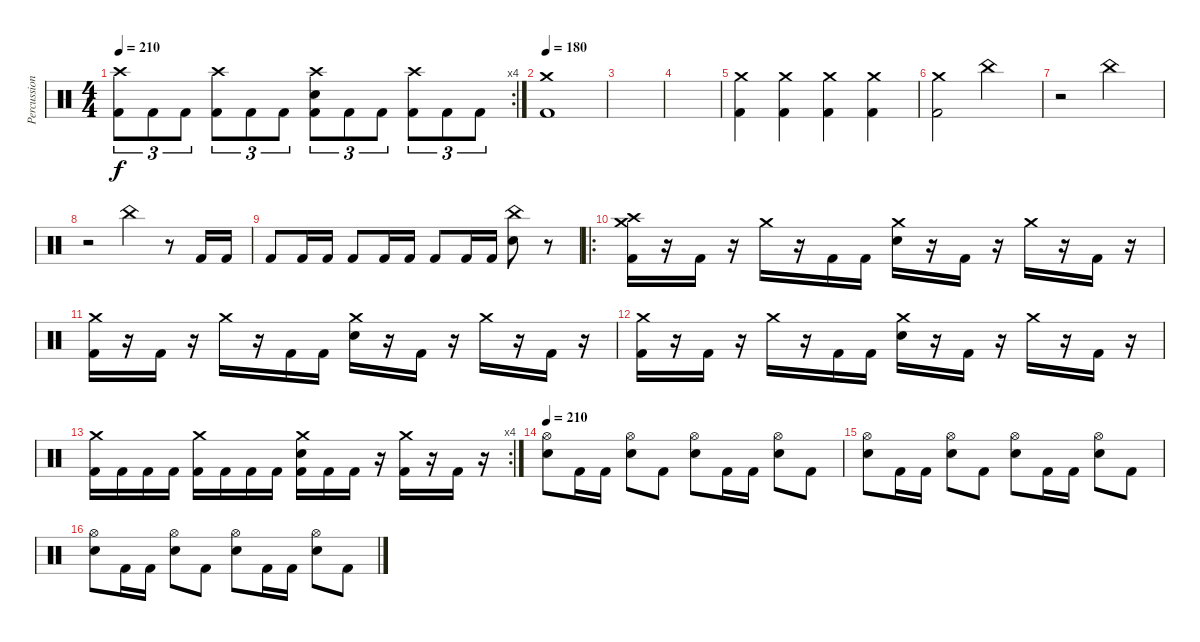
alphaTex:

\track ("Percussion" "Percussion") {instrument percussion}
\staff {score}
\articulation defaults
\rc 4
\ts (4 4)
\tempo 210
\clef neutral
\ks c
("Crash high (hit)" "Kick (hit) 2").8{tu (3 2) dy f} "Kick (hit) 2".8{tu (3 2)} "Kick (hit) 2".8{tu (3 2)} ("Crash high (hit)" "Kick (hit) 2").8{tu (3 2)} "Kick (hit) 2".8{tu (3 2)} "Kick (hit) 2".8{tu (3 2)} ("Crash high (hit)" "Electric Snare (hit)" "Kick (hit) 2").8{tu (3 2)} "Kick (hit) 2".8{tu (3 2)} "Kick (hit) 2".8{tu (3 2)} ("Crash high (hit)" "Kick (hit) 2").8{tu (3 2)} "Kick (hit) 2".8{tu (3 2)} "Kick (hit) 2".8{tu (3 2)} |
\tempo 180
("Crash medium (hit)" "Kick (hit) 2").1 |
|
|
("Crash medium (hit)" "Kick (hit) 2").4 ("Crash medium (hit)" "Kick (hit) 2").4 ("Crash medium (hit)" "Kick (hit) 2").4 ("Crash medium (hit)" "Kick (hit) 2").4 |
("Crash medium (hit)" "Kick (hit) 2").2 "China (hit)".2 |
r.2 "China (hit)".2 |
r.2 "China (hit)".4 r.8 "Kick (hit) 2".16 "Kick (hit) 2".16 |
"Kick (hit) 2".8 "Kick (hit) 2".16 "Kick (hit) 2".16 "Kick (hit) 2".8 "Kick (hit) 2".16 "Kick (hit) 2".16 "Kick (hit) 2".8 "Kick (hit) 2".16 "Kick (hit) 2".16 ("China (hit)" "Electric Snare (hit)").8 r.8 |
\ro
("Crash high (hit)" "Crash medium (hit)" "Kick (hit) 2").16 r.16 "Kick (hit) 2".16 r.16 "Crash medium (hit)".16 r.16 "Kick (hit) 2".16 "Kick (hit) 2".16 ("Crash medium (hit)" "Electric Snare (hit)").16 r.16 "Kick (hit) 2".16 r.16 "Crash medium (hit)".16 r.16 "Kick (hit) 2".16 r.16 |
("Crash medium (hit)" "Kick (hit) 2").16 r.16 "Kick (hit) 2".16 r.16 "Crash medium (hit)".16 r.16 "Kick (hit) 2".16 "Kick (hit) 2".16 ("Crash medium (hit)" "Electric Snare (hit)").16 r.16 "Kick (hit) 2".16 r.16 "Crash medium (hit)".16 r.16 "Kick (hit) 2".16 r.16 |
("Crash medium (hit)" "Kick (hit) 2").16 r.16 "Kick (hit) 2".16 r.16 "Crash medium (hit)".16 r.16 "Kick (hit) 2".16 "Kick (hit) 2".16 ("Crash medium (hit)" "Electric Snare (hit)").16 r.16 "Kick (hit) 2".16 r.16 "Crash medium (hit)".16 r.16 "Kick (hit) 2".16 r.16 |
\rc 4
("Crash medium (hit)" "Kick (hit) 2").16 "Kick (hit) 2".16 "Kick (hit) 2".16 "Kick (hit) 2".16 ("Crash medium (hit)" "Kick (hit) 2").16 "Kick (hit) 2".16 "Kick (hit) 2".16 "Kick (hit) 2".16 ("Crash medium (hit)" "Electric Snare (hit)" "Kick (hit) 2").16 "Kick (hit) 2".16 "Kick (hit) 2".16 r.16 ("Crash medium (hit)" "Kick (hit) 2").16 r.16 "Kick (hit) 2".16 r.16 |
\tempo 210
("Hi-Hat (open)" "Electric Snare (hit)").8 "Kick (hit) 2".16 "Kick (hit) 2".16 ("Hi-Hat (open)" "Electric Snare (hit)").8 "Kick (hit) 2".8 ("Hi-Hat (open)" "Electric Snare (hit)").8 "Kick (hit) 2".16 "Kick (hit) 2".16 ("Hi-Hat (open)" "Electric Snare (hit)").8 "Kick (hit) 2".8 |
("Hi-Hat (open)" "Electric Snare (hit)").8 "Kick (hit) 2".16 "Kick (hit) 2".16 ("Hi-Hat (open)" "Electric Snare (hit)").8 "Kick (hit) 2".8 ("Hi-Hat (open)" "Electric Snare (hit)").8 "Kick (hit) 2".16 "Kick (hit) 2".16 ("Hi-Hat (open)" "Electric Snare (hit)").8 "Kick (hit) 2".8 |
("Hi-Hat (open)" "Electric Snare (hit)").8 "Kick (hit) 2".16 "Kick (hit) 2".16 ("Hi-Hat (open)" "Electric Snare (hit)").8 "Kick (hit) 2".8 ("Hi-Hat (open)" "Electric Snare (hit)").8 "Kick (hit) 2".16 "Kick (hit) 2".16 ("Hi-Hat (open)" "Electric Snare (hit)").8 "Kick (hit) 2".8
